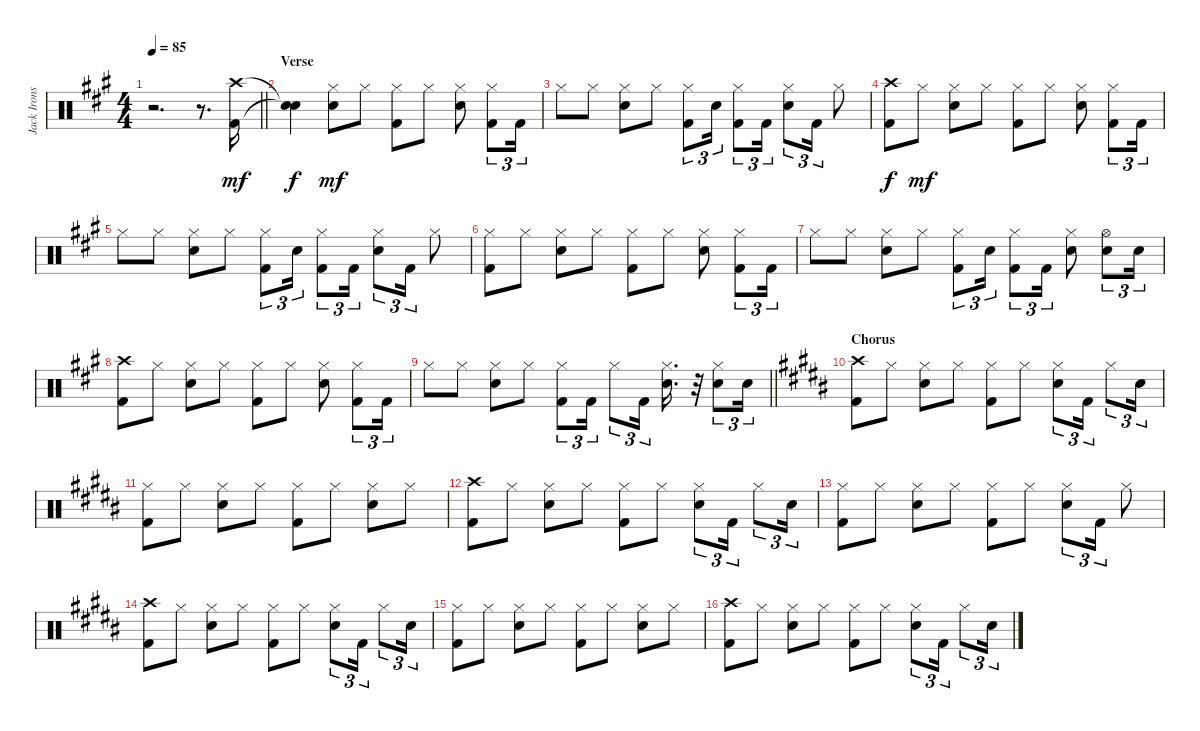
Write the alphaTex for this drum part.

\track ("Jack Irons" "Jack Irons") {instrument percussion}
\staff {score}
\articulation defaults
\ts (4 4)
\tempo 85
\clef neutral
\barLineRight lightlight
\ks a
r.2{d dy mf} r.8{d} ("Crash high (hit)" "Kick (hit) 2").16 |
\section ("" "Verse")
("Snare (hit)"{t} "Snare (hit)"{t}).4{dy f} ("Hi-Hat (closed)" "Electric Snare (hit)").8{dy mf} "Hi-Hat (closed)".8 ("Hi-Hat (closed)" "Kick (hit) 2").8 "Hi-Hat (closed)".8 ("Hi-Hat (closed)" "Electric Snare (hit)").8 ("Hi-Hat (closed)" "Kick (hit) 2").8{tu (3 2)} "Kick (hit) 2".16{tu (3 2)} |
"Hi-Hat (closed)".8 "Hi-Hat (closed)".8 ("Hi-Hat (closed)" "Electric Snare (hit)").8 "Hi-Hat (closed)".8 ("Hi-Hat (closed)" "Kick (hit) 2").8{tu (3 2)} "Electric Snare (hit)".16{tu (3 2)} ("Hi-Hat (closed)" "Kick (hit) 2").8{tu (3 2)} "Kick (hit) 2".16{tu (3 2)} ("Hi-Hat (closed)" "Electric Snare (hit)").8{tu (3 2)} "Kick (hit) 2".16{tu (3 2)} "Hi-Hat (closed)".8 |
("Crash high (hit)" "Kick (hit) 2").8{dy f} "Hi-Hat (closed)".8{dy mf} ("Hi-Hat (closed)" "Electric Snare (hit)").8 "Hi-Hat (closed)".8 ("Hi-Hat (closed)" "Kick (hit) 2").8 "Hi-Hat (closed)".8 ("Hi-Hat (closed)" "Electric Snare (hit)").8 ("Hi-Hat (closed)" "Kick (hit) 2").8{tu (3 2)} "Kick (hit) 2".16{tu (3 2)} |
"Hi-Hat (closed)".8 "Hi-Hat (closed)".8 ("Hi-Hat (closed)" "Electric Snare (hit)").8 "Hi-Hat (closed)".8 ("Hi-Hat (closed)" "Kick (hit) 2").8{tu (3 2)} "Electric Snare (hit)".16{tu (3 2)} ("Hi-Hat (closed)" "Kick (hit) 2").8{tu (3 2)} "Kick (hit) 2".16{tu (3 2)} ("Hi-Hat (closed)" "Electric Snare (hit)").8{tu (3 2)} "Kick (hit) 2".16{tu (3 2)} "Hi-Hat (closed)".8 |
("Hi-Hat (closed)" "Kick (hit) 2").8 "Hi-Hat (closed)".8 ("Hi-Hat (closed)" "Electric Snare (hit)").8 "Hi-Hat (closed)".8 ("Hi-Hat (closed)" "Kick (hit) 2").8 "Hi-Hat (closed)".8 ("Hi-Hat (closed)" "Electric Snare (hit)").8 ("Hi-Hat (closed)" "Kick (hit) 2").8{tu (3 2)} "Kick (hit) 2".16{tu (3 2)} |
"Hi-Hat (closed)".8 "Hi-Hat (closed)".8 ("Hi-Hat (closed)" "Electric Snare (hit)").8 "Hi-Hat (closed)".8 ("Hi-Hat (closed)" "Kick (hit) 2").8{tu (3 2)} "Electric Snare (hit)".16{tu (3 2)} ("Hi-Hat (closed)" "Kick (hit) 2").8{tu (3 2)} "Kick (hit) 2".16{tu (3 2)} ("Hi-Hat (closed)" "Electric Snare (hit)").8 ("Hi-Hat (open)" "Electric Snare (hit)").8{tu (3 2)} "Electric Snare (hit)".16{tu (3 2)} |
("Crash high (hit)" "Kick (hit) 2").8 "Hi-Hat (closed)".8 ("Hi-Hat (closed)" "Electric Snare (hit)").8 "Hi-Hat (closed)".8 ("Hi-Hat (closed)" "Kick (hit) 2").8 "Hi-Hat (closed)".8 ("Hi-Hat (closed)" "Electric Snare (hit)").8 ("Hi-Hat (closed)" "Kick (hit) 2").8{tu (3 2)} "Kick (hit) 2".16{tu (3 2)} |
\barLineRight lightlight "Hi-Hat (closed)".8 "Hi-Hat (closed)".8
("Hi-Hat (closed)" "Electric Snare (hit)").8 "Hi-Hat (closed)".8 ("Hi-Hat (closed)" "Kick (hit) 2").8{tu (3 2)} "Kick (hit) 2".16{tu (3 2)} "Hi-Hat (closed)".8{tu (3 2)} "Kick (hit) 2".16{tu (3 2)} ("Hi-Hat (closed)" "Electric Snare (hit)").16{d} r.32 ("Hi-Hat (closed)" "Electric Snare (hit)").8{tu (3 2)} "Electric Snare (hit)".16{tu (3 2)} |
\section ("" "Chorus")
\ks b
("Crash high (hit)" "Kick (hit) 2").8 "Hi-Hat (closed)".8 ("Hi-Hat (closed)" "Electric Snare (hit)").8 "Hi-Hat (closed)".8 ("Hi-Hat (closed)" "Kick (hit) 2").8 "Hi-Hat (closed)".8 ("Hi-Hat (closed)" "Electric Snare (hit)").8{tu (3 2)} "Kick (hit) 2".16{tu (3 2)} "Hi-Hat (closed)".8{tu (3 2)} "Electric Snare (hit)".16{tu (3 2)} |
("Hi-Hat (closed)" "Kick (hit) 2").8 "Hi-Hat (closed)".8 ("Hi-Hat (closed)" "Electric Snare (hit)").8 "Hi-Hat (closed)".8 ("Hi-Hat (closed)" "Kick (hit) 2").8 "Hi-Hat (closed)".8 ("Hi-Hat (closed)" "Electric Snare (hit)").8 "Hi-Hat (closed)".8 |
("Crash high (hit)" "Kick (hit) 2").8 "Hi-Hat (closed)".8 ("Hi-Hat (closed)" "Electric Snare (hit)").8 "Hi-Hat (closed)".8 ("Hi-Hat (closed)" "Kick (hit) 2").8 "Hi-Hat (closed)".8 ("Hi-Hat (closed)" "Electric Snare (hit)").8{tu (3 2)} "Kick (hit) 2".16{tu (3 2)} "Hi-Hat (closed)".8{tu (3 2)} "Electric Snare (hit)".16{tu (3 2)} |
("Hi-Hat (closed)" "Kick (hit) 2").8 "Hi-Hat (closed)".8 ("Hi-Hat (closed)" "Electric Snare (hit)").8 "Hi-Hat (closed)".8 ("Hi-Hat (closed)" "Kick (hit) 2").8 "Hi-Hat (closed)".8 ("Hi-Hat (closed)" "Electric Snare (hit)").8{tu (3 2)} "Kick (hit) 2".16{tu (3 2)} "Hi-Hat (closed)".8 |
("Crash high (hit)" "Kick (hit) 2").8 "Hi-Hat (closed)".8 ("Hi-Hat (closed)" "Electric Snare (hit)").8 "Hi-Hat (closed)".8 ("Hi-Hat (closed)" "Kick (hit) 2").8 "Hi-Hat (closed)".8 ("Hi-Hat (closed)" "Electric Snare (hit)").8{tu (3 2)} "Kick (hit) 2".16{tu (3 2)} "Hi-Hat (closed)".8{tu (3 2)} "Electric Snare (hit)".16{tu (3 2)} |
("Hi-Hat (closed)" "Kick (hit) 2").8 "Hi-Hat (closed)".8 ("Hi-Hat (closed)" "Electric Snare (hit)").8 "Hi-Hat (closed)".8 ("Hi-Hat (closed)" "Kick (hit) 2").8 "Hi-Hat (closed)".8 ("Hi-Hat (closed)" "Electric Snare (hit)").8 "Hi-Hat (closed)".8 |
("Crash high (hit)" "Kick (hit) 2").8 "Hi-Hat (closed)".8 ("Hi-Hat (closed)" "Electric Snare (hit)").8 "Hi-Hat (closed)".8 ("Hi-Hat (closed)" "Kick (hit) 2").8 "Hi-Hat (closed)".8 ("Hi-Hat (closed)" "Electric Snare (hit)").8{tu (3 2)} "Kick (hit) 2".16{tu (3 2)} "Hi-Hat (closed)".8{tu (3 2)} "Electric Snare (hit)".16{tu (3 2)}
